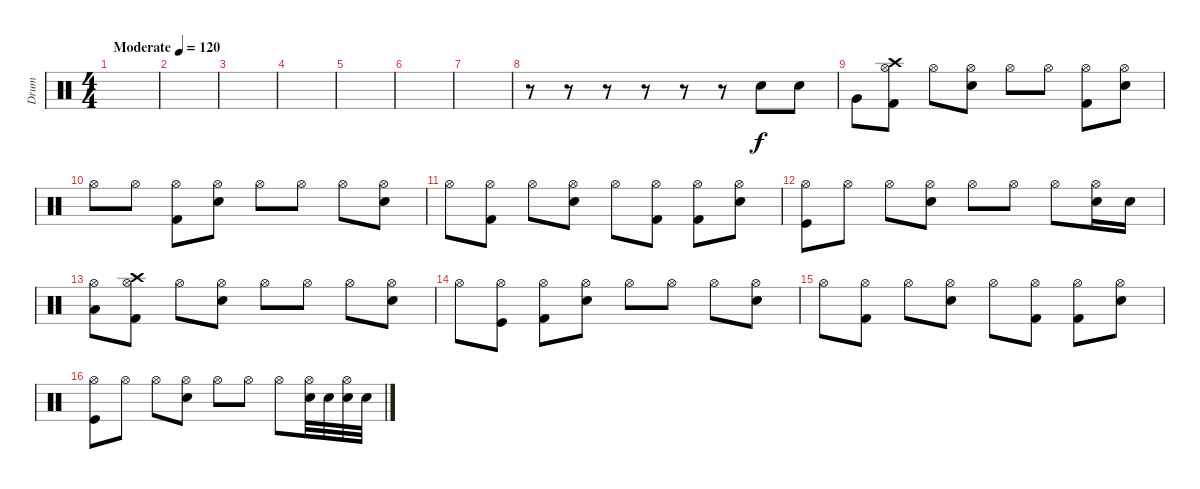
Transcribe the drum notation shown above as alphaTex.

\track ("Drum" "Drum") {instrument percussion}
\staff {score}
\articulation defaults
\ts (4 4)
\tempo (120 "Moderate")
\clef neutral
\ks c
|
|
|
|
|
|
|
r.8 r.8 r.8 r.8 r.8 r.8 "Electric Snare (hit)".8 "Electric Snare (hit)".8 |
"Very Low Tom (hit)".8 ("Kick (hit) 2" "Crash high (hit)" "Hi-Hat (open)").8 "Hi-Hat (open)".8 ("Hi-Hat (open)" "Electric Snare (hit)").8 "Hi-Hat (open)".8 "Hi-Hat (open)".8 ("Hi-Hat (open)" "Kick (hit) 2").8 ("Hi-Hat (open)" "Electric Snare (hit)").8 |
"Hi-Hat (open)".8 "Hi-Hat (open)".8 ("Hi-Hat (open)" "Kick (hit) 2").8 ("Hi-Hat (open)" "Electric Snare (hit)").8 "Hi-Hat (open)".8 "Hi-Hat (open)".8 "Hi-Hat (open)".8 ("Hi-Hat (open)" "Electric Snare (hit)").8 |
"Hi-Hat (open)".8 ("Kick (hit) 2" "Hi-Hat (open)").8 "Hi-Hat (open)".8 ("Electric Snare (hit)" "Hi-Hat (open)").8 "Hi-Hat (open)".8 ("Kick (hit) 2" "Hi-Hat (open)").8 ("Kick (hit) 2" "Hi-Hat (open)").8 ("Electric Snare (hit)" "Hi-Hat (open)").8 |
("Hi-Hat (open)" "Kick (hit)").8 "Hi-Hat (open)".8 "Hi-Hat (open)".8 ("Hi-Hat (open)" "Electric Snare (hit)").8 "Hi-Hat (open)".8 "Hi-Hat (open)".8 "Hi-Hat (open)".8 ("Hi-Hat (open)" "Electric Snare (hit)").16 "Electric Snare (hit)".16 |
("Hi-Hat (open)" "Low Floor Tom (hit)").8 ("Hi-Hat (open)" "Kick (hit) 2" "Crash high (hit)").8 "Hi-Hat (open)".8 ("Hi-Hat (open)" "Electric Snare (hit)").8 "Hi-Hat (open)".8 "Hi-Hat (open)".8 "Hi-Hat (open)".8 ("Hi-Hat (open)" "Electric Snare (hit)").8 |
"Hi-Hat (open)".8 ("Hi-Hat (open)" "Kick (hit)").8 ("Hi-Hat (open)" "Kick (hit) 2").8 ("Hi-Hat (open)" "Electric Snare (hit)").8 "Hi-Hat (open)".8 "Hi-Hat (open)".8 "Hi-Hat (open)".8 ("Hi-Hat (open)" "Electric Snare (hit)").8 |
"Hi-Hat (open)".8 ("Kick (hit) 2" "Hi-Hat (open)").8 "Hi-Hat (open)".8 ("Electric Snare (hit)" "Hi-Hat (open)").8 "Hi-Hat (open)".8 ("Kick (hit) 2" "Hi-Hat (open)").8 ("Kick (hit) 2" "Hi-Hat (open)").8 ("Electric Snare (hit)" "Hi-Hat (open)").8 |
("Hi-Hat (open)" "Kick (hit)").8 "Hi-Hat (open)".8 "Hi-Hat (open)".8 ("Hi-Hat (open)" "Electric Snare (hit)").8 "Hi-Hat (open)".8 "Hi-Hat (open)".8 "Hi-Hat (open)".8 ("Hi-Hat (open)" "Electric Snare (hit)").32 "Electric Snare (hit)".32 ("Hi-Hat (open)" "Electric Snare (hit)").32 "Electric Snare (hit)".32
